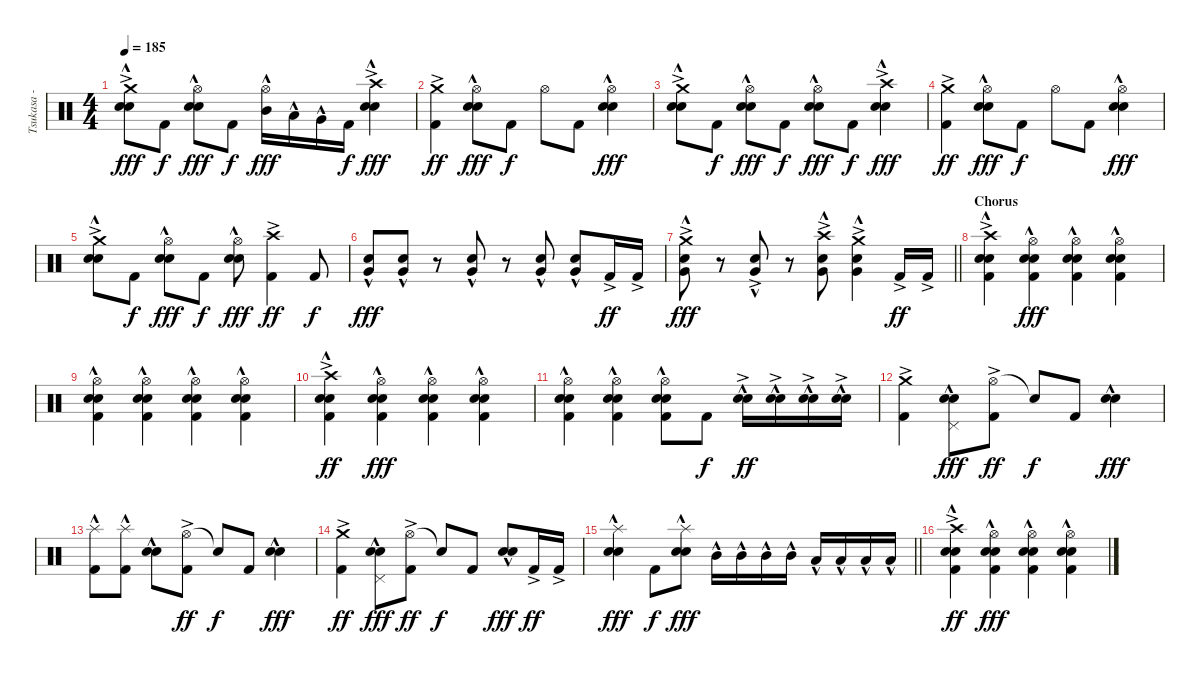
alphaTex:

\track ("Tsukasa - Drums" "Tsukasa - ") {instrument percussion}
\staff {score}
\articulation defaults
\ts (4 4)
\tempo 185
\clef neutral
\ks c
("Crash medium (hit)"{ac} "Electric Snare (hit)"{hac} "Snare (hit) 2"{hac}).8{dy fff} "Kick (hit) 2".8{dy f} ("Hi-Hat (open)" "Electric Snare (hit)"{hac} "Snare (hit) 2"{hac}).8{dy fff} "Kick (hit) 2".8{dy f} ("Hi-Hat (open)" "Mid Tom (hit)"{hac}).16{dy fff} "Low Tom (hit)"{hac}.16 "Very Low Tom (hit)"{hac}.16 "Kick (hit) 2".16{dy f} ("Crash high (hit)"{ac} "Electric Snare (hit)"{hac} "Snare (hit) 2"{hac}).4{dy fff} |
("Crash medium (hit)"{ac} "Kick (hit) 2").4{dy ff} ("Hi-Hat (open)" "Electric Snare (hit)"{hac} "Snare (hit) 2"{hac}).8{dy fff} "Kick (hit) 2".8{dy f} "Hi-Hat (open)".8 "Kick (hit) 2".8 ("Hi-Hat (open)" "Electric Snare (hit)"{hac} "Snare (hit) 2"{hac}).4{dy fff} |
("Crash medium (hit)"{ac} "Electric Snare (hit)"{hac} "Snare (hit) 2"{hac}).8 "Kick (hit) 2".8{dy f} ("Hi-Hat (open)" "Electric Snare (hit)"{hac} "Snare (hit) 2"{hac}).8{dy fff} "Kick (hit) 2".8{dy f} ("Hi-Hat (open)" "Electric Snare (hit)"{hac} "Snare (hit) 2"{hac}).8{dy fff} "Kick (hit) 2".8{dy f} ("Crash high (hit)"{ac} "Electric Snare (hit)"{hac} "Snare (hit) 2"{hac}).4{dy fff} |
("Crash medium (hit)"{ac} "Kick (hit) 2").4{dy ff} ("Hi-Hat (open)" "Electric Snare (hit)"{hac} "Snare (hit) 2"{hac}).8{dy fff} "Kick (hit) 2".8{dy f} "Hi-Hat (open)".8 "Kick (hit) 2".8 ("Hi-Hat (open)" "Electric Snare (hit)"{hac} "Snare (hit) 2"{hac}).4{dy fff} |
("Crash medium (hit)"{ac} "Electric Snare (hit)"{hac} "Snare (hit) 2"{hac}).8 "Kick (hit) 2".8{dy f} ("Hi-Hat (open)" "Electric Snare (hit)"{hac} "Snare (hit) 2"{hac}).8{dy fff} "Kick (hit) 2".8{dy f} ("Hi-Hat (open)" "Electric Snare (hit)"{hac} "Snare (hit) 2"{hac}).8{dy fff} ("Crash high (hit)"{ac} "Kick (hit) 2").4{dy ff} "Kick (hit) 2".8{dy f} |
("Electric Snare (hit)" "Very Low Tom (hit)"{hac}).8{dy fff} ("Electric Snare (hit)" "Very Low Tom (hit)"{hac}).8 r.8 ("Electric Snare (hit)" "Very Low Tom (hit)"{hac}).8 r.8 ("Electric Snare (hit)" "Very Low Tom (hit)"{hac}).8 ("Electric Snare (hit)" "Very Low Tom (hit)"{hac}).8 "Kick (hit) 2"{ac}.16{dy ff} "Kick (hit) 2"{ac}.16 |
\barLineRight lightlight
("Crash medium (hit)"{ac} "Electric Snare (hit)"{ac} "Very Low Tom (hit)"{hac}).8{dy fff} r.8 ("Electric Snare (hit)"{ac} "Very Low Tom (hit)"{hac}).8 r.8 ("Crash high (hit)"{ac} "Electric Snare (hit)"{ac} "Very Low Tom (hit)"{hac}).8 ("Crash medium (hit)"{ac} "Electric Snare (hit)"{hac} "Very Low Tom (hit)"{hac}).4 "Kick (hit) 2"{ac}.16{dy ff} "Kick (hit) 2"{ac}.16 |
\section ("" "Chorus")
("Crash high (hit)"{ac} "Electric Snare (hit)"{hac} "Snare (hit) 2"{ac} "Kick (hit) 2").4 ("Hi-Hat (open)" "Electric Snare (hit)"{hac} "Snare (hit) 2" "Kick (hit) 2").4{dy fff} ("Hi-Hat (open)" "Electric Snare (hit)"{hac} "Snare (hit) 2" "Kick (hit) 2").4 ("Hi-Hat (open)" "Electric Snare (hit)"{hac} "Snare (hit) 2" "Kick (hit) 2").4 |
("Hi-Hat (open)" "Electric Snare (hit)"{hac} "Snare (hit) 2" "Kick (hit) 2").4 ("Hi-Hat (open)" "Electric Snare (hit)"{hac} "Snare (hit) 2" "Kick (hit) 2").4 ("Hi-Hat (open)" "Electric Snare (hit)"{hac} "Snare (hit) 2" "Kick (hit) 2").4 ("Hi-Hat (open)" "Electric Snare (hit)"{hac} "Snare (hit) 2" "Kick (hit) 2").4 |
("Crash high (hit)"{ac} "Electric Snare (hit)"{hac} "Snare (hit) 2"{ac} "Kick (hit) 2").4{dy ff} ("Hi-Hat (open)" "Electric Snare (hit)"{hac} "Snare (hit) 2" "Kick (hit) 2").4{dy fff} ("Hi-Hat (open)" "Electric Snare (hit)"{hac} "Snare (hit) 2" "Kick (hit) 2").4 ("Hi-Hat (open)" "Electric Snare (hit)"{hac} "Snare (hit) 2" "Kick (hit) 2").4 |
("Hi-Hat (open)" "Electric Snare (hit)"{hac} "Snare (hit) 2" "Kick (hit) 2").4 ("Hi-Hat (open)" "Electric Snare (hit)"{hac} "Snare (hit) 2" "Kick (hit) 2").4 ("Hi-Hat (open)" "Electric Snare (hit)"{hac} "Snare (hit) 2" "Kick (hit) 2").8 "Kick (hit) 2".8{dy f} ("Electric Snare (hit)"{hac} "Snare (hit) 2"{ac}).16{dy ff} ("Electric Snare (hit)"{hac} "Snare (hit) 2"{ac}).16 ("Electric Snare (hit)"{hac} "Snare (hit) 2"{ac}).16 ("Electric Snare (hit)"{hac} "Snare (hit) 2"{ac}).16 |
("Crash medium (hit)"{ac} "Kick (hit) 2").4 ("Pedal Hi-Hat (hit)" "Electric Snare (hit)"{hac} "Snare (hit) 2"{hac}).8{dy fff} ("Hi-Hat (open)"{ac} "Kick (hit) 2").8{dy ff} "Snare (hit)"{t}.8{dy f} "Kick (hit) 2".8 ("Electric Snare (hit)"{hac} "Snare (hit) 2"{hac}).4{dy fff} |
("Splash (hit)"{hac} "Kick (hit) 2").8 ("Splash (hit)"{hac} "Kick (hit) 2").8 ("Electric Snare (hit)"{hac} "Snare (hit) 2"{hac}).8 ("Hi-Hat (open)"{ac} "Kick (hit) 2").8{dy ff} "Snare (hit)"{t}.8{dy f} "Kick (hit) 2".8 ("Electric Snare (hit)"{hac} "Snare (hit) 2"{hac}).4{dy fff} |
("Crash medium (hit)"{ac} "Kick (hit) 2").4{dy ff} ("Pedal Hi-Hat (hit)" "Electric Snare (hit)"{hac} "Snare (hit) 2"{hac}).8{dy fff} ("Hi-Hat (open)"{ac} "Kick (hit) 2").8{dy ff} "Snare (hit)"{t}.8{dy f} "Kick (hit) 2".8 ("Electric Snare (hit)"{hac} "Snare (hit) 2"{hac}).8{dy fff} "Kick (hit) 2"{ac}.16{dy ff} "Kick (hit) 2"{ac}.16 |
\barLineRight lightlight
("Splash (hit)"{hac} "Electric Snare (hit)"{hac} "Snare (hit) 2"{hac}).4{dy fff} "Kick (hit) 2".8{dy f} ("Splash (hit)"{hac} "Electric Snare (hit)"{hac} "Snare (hit) 2"{hac}).8{dy fff} "Mid Tom (hit)"{hac}.16 "Mid Tom (hit)"{hac}.16 "Mid Tom (hit)"{hac}.16 "Mid Tom (hit)"{hac}.16 "Low Tom (hit)"{hac}.16 "Low Tom (hit)"{hac}.16 "Low Tom (hit)"{hac}.16 "Low Tom (hit)"{hac}.16 |
\section ("" "")
("Crash high (hit)"{ac} "Electric Snare (hit)"{hac} "Snare (hit) 2"{ac} "Kick (hit) 2").4{dy ff} ("Hi-Hat (open)" "Electric Snare (hit)"{hac} "Snare (hit) 2" "Kick (hit) 2").4{dy fff} ("Hi-Hat (open)" "Electric Snare (hit)"{hac} "Snare (hit) 2" "Kick (hit) 2").4 ("Hi-Hat (open)" "Electric Snare (hit)"{hac} "Snare (hit) 2" "Kick (hit) 2").4
